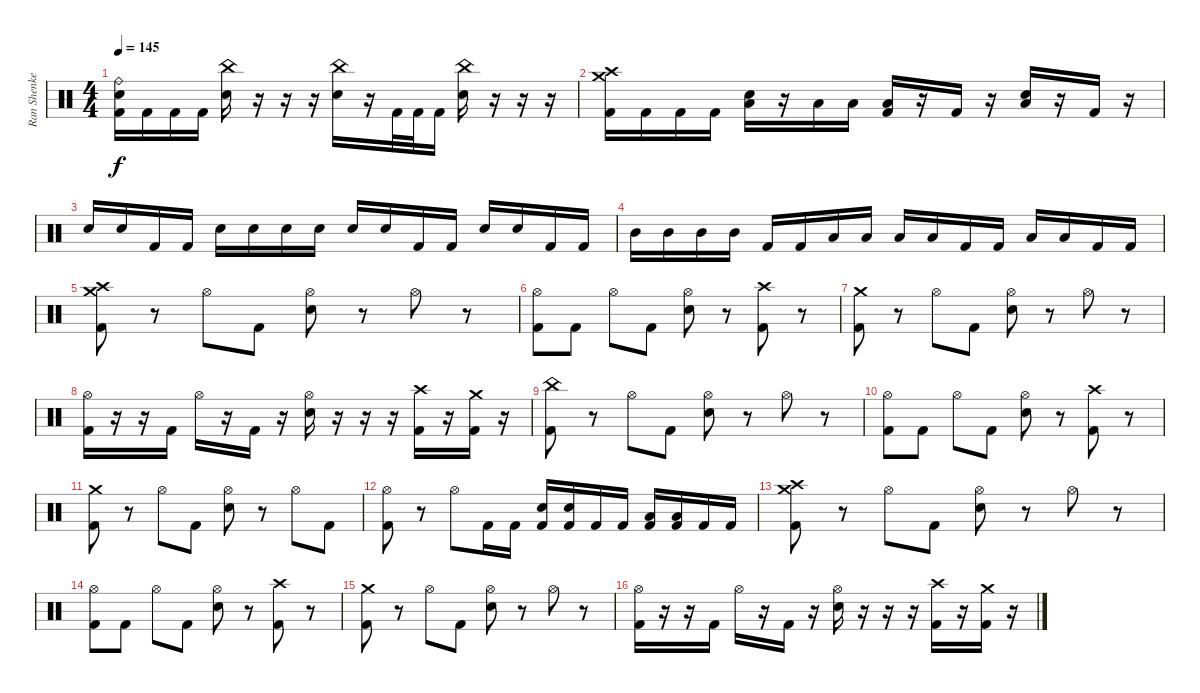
\track ("Ran Shenkerman" "Ran Shenke") {instrument percussion}
\staff {score}
\articulation defaults
\ts (4 4)
\tempo 145
\clef neutral
\ks c
("Ride (bell)" "Snare (hit) 2" "Kick (hit) 2").16{dy f} "Kick (hit) 2".16 "Kick (hit) 2".16 "Kick (hit) 2".16 ("China (hit)" "Snare (hit) 2").16 r.16 r.16 r.16 ("China (hit)" "Snare (hit) 2").16 r.16 "Kick (hit) 2".32 "Kick (hit) 2".32 "Kick (hit) 2".16 ("China (hit)" "Snare (hit) 2").16 r.16 r.16 r.16 |
("Crash high (hit)" "Crash medium (hit)" "Kick (hit) 2").16 "Kick (hit) 2".16 "Kick (hit) 2".16 "Kick (hit) 2".16 ("Snare (hit) 2" "Low Floor Tom (hit)").16 r.16 "Low Floor Tom (hit)".16 "Low Tom (hit)".16 ("Low Floor Tom (hit)" "Kick (hit) 2").16 r.16 "Kick (hit) 2".16 r.16 ("Snare (hit) 2" "Low Floor Tom (hit)").16 r.16 "Kick (hit) 2".16 r.16 |
"Snare (hit) 2".16 "Snare (hit) 2".16 "Kick (hit) 2".16 "Kick (hit) 2".16 "Snare (hit) 2".16 "Snare (hit) 2".16 "Snare (hit) 2".16 "Snare (hit) 2".16 "Snare (hit) 2".16 "Snare (hit) 2".16 "Kick (hit) 2".16 "Kick (hit) 2".16 "Snare (hit) 2".16 "Snare (hit) 2".16 "Kick (hit) 2".16 "Kick (hit) 2".16 |
"Mid Tom (hit)".16 "Mid Tom (hit)".16 "Mid Tom (hit)".16 "Mid Tom (hit)".16 "Kick (hit) 2".16 "Kick (hit) 2".16 "Low Tom (hit)".16 "Low Tom (hit)".16 "Low Tom (hit)".16 "Low Tom (hit)".16 "Kick (hit) 2".16 "Kick (hit) 2".16 "Low Floor Tom (hit)".16 "Low Floor Tom (hit)".16 "Kick (hit) 2".16 "Kick (hit) 2".16 |
("Crash high (hit)" "Crash medium (hit)" "Kick (hit) 2").8 r.8 "Hi-Hat (open)".8 "Kick (hit) 2".8 ("Hi-Hat (open)" "Snare (hit) 2").8 r.8 "Hi-Hat (open)".8 r.8 |
("Hi-Hat (open)" "Kick (hit) 2").8 "Kick (hit) 2".8 "Hi-Hat (open)".8 "Kick (hit) 2".8 ("Hi-Hat (open)" "Snare (hit) 2").8 r.8 ("Crash high (hit)" "Kick (hit) 2").8 r.8 |
("Crash medium (hit)" "Kick (hit) 2").8 r.8 "Hi-Hat (open)".8 "Kick (hit) 2".8 ("Hi-Hat (open)" "Snare (hit) 2").8 r.8 "Hi-Hat (open)".8 r.8 |
("Hi-Hat (open)" "Kick (hit) 2").16 r.16 r.16 "Kick (hit) 2".16 "Hi-Hat (open)".16 r.16 "Kick (hit) 2".16 r.16 ("Hi-Hat (open)" "Snare (hit) 2").16 r.16 r.16 r.16 ("Crash high (hit)" "Kick (hit) 2").16 r.16 ("Crash medium (hit)" "Kick (hit) 2").16 r.16 |
("China (hit)" "Kick (hit) 2").8 r.8 "Hi-Hat (open)".8 "Kick (hit) 2".8 ("Hi-Hat (open)" "Snare (hit) 2").8 r.8 "Hi-Hat (open)".8 r.8 |
("Hi-Hat (open)" "Kick (hit) 2").8 "Kick (hit) 2".8 "Hi-Hat (open)".8 "Kick (hit) 2".8 ("Hi-Hat (open)" "Snare (hit) 2").8 r.8 ("Crash high (hit)" "Kick (hit) 2").8 r.8 |
("Crash medium (hit)" "Kick (hit) 2").8 r.8 "Hi-Hat (open)".8 "Kick (hit) 2".8 ("Hi-Hat (open)" "Snare (hit) 2").8 r.8 "Hi-Hat (open)".8 "Kick (hit) 2".8 |
("Hi-Hat (open)" "Kick (hit) 2").8 r.8 "Hi-Hat (open)".8 "Kick (hit) 2".16 "Kick (hit) 2".16 ("Snare (hit) 2" "Kick (hit) 2").16 ("Snare (hit) 2" "Kick (hit) 2").16 "Kick (hit) 2".16 "Kick (hit) 2".16 ("Low Floor Tom (hit)" "Kick (hit) 2").16 ("Low Floor Tom (hit)" "Kick (hit) 2").16 "Kick (hit) 2".16 "Kick (hit) 2".16 |
("Crash high (hit)" "Crash medium (hit)" "Kick (hit) 2").8 r.8 "Hi-Hat (open)".8 "Kick (hit) 2".8 ("Hi-Hat (open)" "Snare (hit) 2").8 r.8 "Hi-Hat (open)".8 r.8 |
("Hi-Hat (open)" "Kick (hit) 2").8 "Kick (hit) 2".8 "Hi-Hat (open)".8 "Kick (hit) 2".8 ("Hi-Hat (open)" "Snare (hit) 2").8 r.8 ("Crash high (hit)" "Kick (hit) 2").8 r.8 |
("Crash medium (hit)" "Kick (hit) 2").8 r.8 "Hi-Hat (open)".8 "Kick (hit) 2".8 ("Hi-Hat (open)" "Snare (hit) 2").8 r.8 "Hi-Hat (open)".8 r.8 |
("Hi-Hat (open)" "Kick (hit) 2").16 r.16 r.16 "Kick (hit) 2".16 "Hi-Hat (open)".16 r.16 "Kick (hit) 2".16 r.16 ("Hi-Hat (open)" "Snare (hit) 2").16 r.16 r.16 r.16 ("Crash high (hit)" "Kick (hit) 2").16 r.16 ("Crash medium (hit)" "Kick (hit) 2").16 r.16
